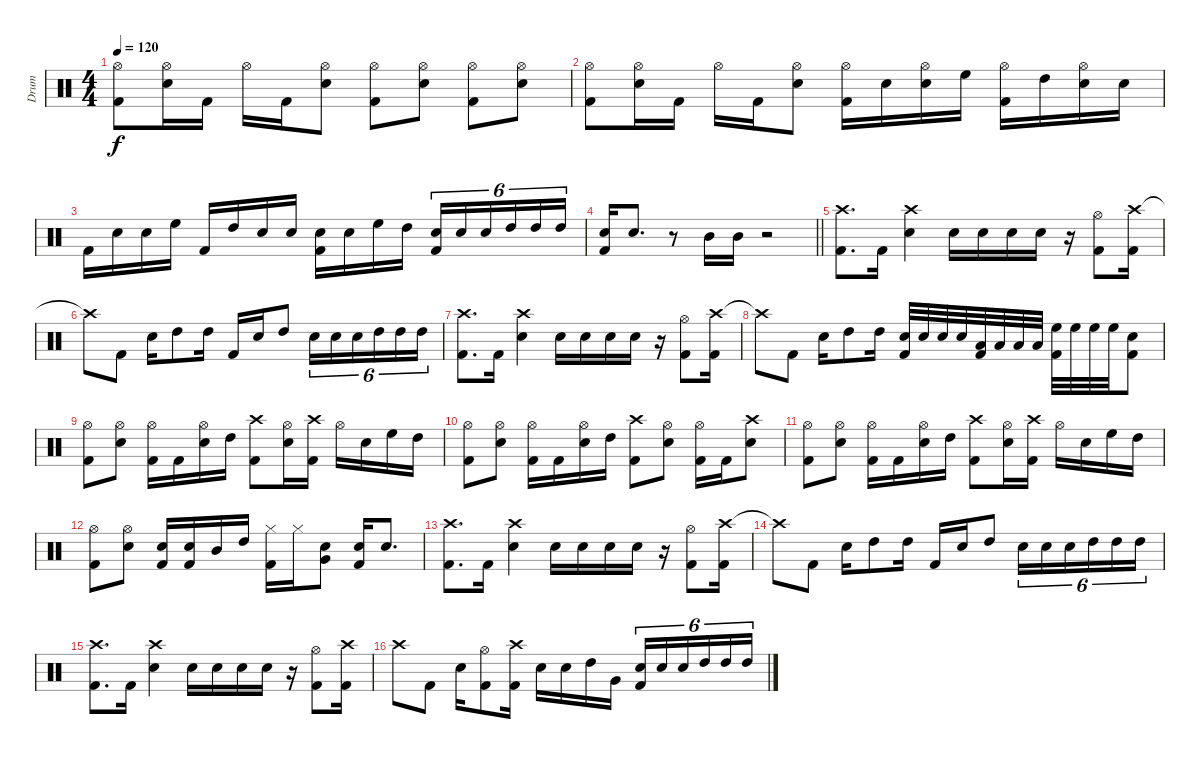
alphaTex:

\track ("Drum" "Drum") {instrument percussion}
\staff {score}
\articulation defaults
\ts (4 4)
\tempo 120
\clef neutral
\ks c
("Hi-Hat (open)" "Kick (hit) 2").8{dy f} ("Hi-Hat (open)" "Snare (hit) 2").16 "Kick (hit) 2".16 "Hi-Hat (open)".16 "Kick (hit) 2".16 ("Hi-Hat (open)" "Snare (hit) 2").8 ("Hi-Hat (open)" "Kick (hit) 2").8 ("Hi-Hat (open)" "Snare (hit) 2").8 ("Hi-Hat (open)" "Kick (hit) 2").8 ("Hi-Hat (open)" "Snare (hit) 2").8 |
("Hi-Hat (open)" "Kick (hit) 2").8 ("Hi-Hat (open)" "Snare (hit) 2").16 "Kick (hit) 2".16 "Hi-Hat (open)".16 "Kick (hit) 2".16 ("Hi-Hat (open)" "Snare (hit) 2").8 ("Hi-Hat (open)" "Kick (hit) 2").16 "Snare (hit) 2".16 ("Hi-Hat (open)" "Snare (hit) 2").16 "High Floor Tom (hit)".16 ("Hi-Hat (open)" "Kick (hit) 2").16 "High Tom (hit)".16 ("Hi-Hat (open)" "Snare (hit) 2").16 "Snare (hit) 2".16 |
"Kick (hit) 2".16 "Snare (hit) 2".16 "Snare (hit) 2".16 "High Floor Tom (hit)".16 "Kick (hit) 2".16 "High Tom (hit)".16 "Snare (hit) 2".16 "Snare (hit) 2".16 ("Snare (hit) 2" "Kick (hit) 2").16 "Snare (hit) 2".16 "High Floor Tom (hit)".16 "High Tom (hit)".16 ("Snare (hit) 2" "Kick (hit) 2").16{tu (6 4)} "Snare (hit) 2".16{tu (6 4)} "Snare (hit) 2".16{tu (6 4)} "High Tom (hit)".16{tu (6 4)} "High Tom (hit)".16{tu (6 4)} "High Tom (hit)".16{tu (6 4)} |
\barLineRight lightlight
("Snare (hit) 2" "Kick (hit) 2").16 "Snare (hit) 2".8{d} r.8 "Mid Tom (hit)".16 "Mid Tom (hit)".16 r.2 |
("Crash high (hit)" "Kick (hit) 2").8{d} "Kick (hit) 2".16 ("Crash high (hit)" "Snare (hit) 2").4 "Snare (hit) 2".16 "Snare (hit) 2".16 "Snare (hit) 2".16 "Snare (hit) 2".16 r.16 ("Hi-Hat (open)" "Kick (hit) 2").8 ("Crash high (hit)" "Kick (hit) 2").16 |
"Crash high (hit)"{t}.8 "Kick (hit) 2".8 "Snare (hit) 2".16 "High Tom (hit)".8 "High Tom (hit)".16 "Kick (hit) 2".16 "Snare (hit) 2".16 "High Tom (hit)".8 "Snare (hit) 2".16{tu (6 4)} "Snare (hit) 2".16{tu (6 4)} "Snare (hit) 2".16{tu (6 4)} "High Tom (hit)".16{tu (6 4)} "High Tom (hit)".16{tu (6 4)} "High Tom (hit)".16{tu (6 4)} |
("Crash high (hit)" "Kick (hit) 2").8{d} "Kick (hit) 2".16 ("Crash high (hit)" "Snare (hit) 2").4 "Snare (hit) 2".16 "Snare (hit) 2".16 "Snare (hit) 2".16 "Snare (hit) 2".16 r.16 ("Hi-Hat (open)" "Kick (hit) 2").8 ("Crash high (hit)" "Kick (hit) 2").16 |
"Crash high (hit)"{t}.8 "Kick (hit) 2".8 "Snare (hit) 2".16 "High Tom (hit)".8 "High Tom (hit)".16 ("Snare (hit) 2" "Kick (hit) 2").32 "Snare (hit) 2".32 "Snare (hit) 2".32 "Snare (hit) 2".32 ("Low Floor Tom (hit)" "Kick (hit) 2").32 "Low Floor Tom (hit)".32 "Low Floor Tom (hit)".32 "Low Floor Tom (hit)".32 ("High Floor Tom (hit)" "Kick (hit) 2").32 "High Floor Tom (hit)".32 "High Floor Tom (hit)".32 "High Floor Tom (hit)".32 ("Snare (hit) 2" "Kick (hit) 2").8 |
("Hi-Hat (open)" "Kick (hit) 2").8 ("Hi-Hat (open)" "Snare (hit) 2").8 ("Hi-Hat (open)" "Kick (hit) 2").16 "Kick (hit) 2".16 ("Hi-Hat (open)" "Snare (hit) 2").16 "High Tom (hit)".16 ("Crash high (hit)" "Kick (hit) 2").8 ("Hi-Hat (open)" "Snare (hit) 2").16 ("Crash high (hit)" "Kick (hit) 2").16 "Hi-Hat (open)".16 "Snare (hit) 2".16 "High Floor Tom (hit)".16 "High Tom (hit)".16 |
("Hi-Hat (open)" "Kick (hit) 2").8 ("Hi-Hat (open)" "Snare (hit) 2").8 ("Hi-Hat (open)" "Kick (hit) 2").16 "Kick (hit) 2".16 ("Hi-Hat (open)" "Snare (hit) 2").16 "High Tom (hit)".16 ("Crash high (hit)" "Kick (hit) 2").8 ("Hi-Hat (open)" "Snare (hit) 2").8 ("Hi-Hat (open)" "Kick (hit) 2").16 "Kick (hit) 2".16 ("Crash high (hit)" "Snare (hit) 2").8 |
("Hi-Hat (open)" "Kick (hit) 2").8 ("Hi-Hat (open)" "Snare (hit) 2").8 ("Hi-Hat (open)" "Kick (hit) 2").16 "Kick (hit) 2".16 ("Hi-Hat (open)" "Snare (hit) 2").16 "High Tom (hit)".16 ("Crash high (hit)" "Kick (hit) 2").8 ("Hi-Hat (open)" "Snare (hit) 2").16 ("Crash high (hit)" "Kick (hit) 2").16 "Hi-Hat (open)".16 "Snare (hit) 2".16 "High Floor Tom (hit)".16 "High Tom (hit)".16 |
("Hi-Hat (open)" "Kick (hit) 2").8 ("Hi-Hat (open)" "Snare (hit) 2").8 ("Snare (hit) 2" "Kick (hit) 2").16 ("Snare (hit) 2" "Kick (hit) 2").16 "Mid Tom (hit)".16 "High Tom (hit)".16 ("Hi-Hat (closed)" "Kick (hit) 2").16 "Hi-Hat (closed)".16 ("Snare (hit) 2" "Very Low Tom (hit)").8 ("Snare (hit) 2" "Kick (hit) 2").16 "Snare (hit) 2".8{d} |
("Crash high (hit)" "Kick (hit) 2").8{d} "Kick (hit) 2".16 ("Crash high (hit)" "Snare (hit) 2").4 "Snare (hit) 2".16 "Snare (hit) 2".16 "Snare (hit) 2".16 "Snare (hit) 2".16 r.16 ("Hi-Hat (open)" "Kick (hit) 2").8 ("Crash high (hit)" "Kick (hit) 2").16 |
"Crash high (hit)"{t}.8 "Kick (hit) 2".8 "Snare (hit) 2".16 "High Tom (hit)".8 "High Tom (hit)".16 "Kick (hit) 2".16 "Snare (hit) 2".16 "High Tom (hit)".8 "Snare (hit) 2".16{tu (6 4)} "Snare (hit) 2".16{tu (6 4)} "Snare (hit) 2".16{tu (6 4)} "High Tom (hit)".16{tu (6 4)} "High Tom (hit)".16{tu (6 4)} "High Tom (hit)".16{tu (6 4)} |
("Crash high (hit)" "Kick (hit) 2").8{d} "Kick (hit) 2".16 ("Crash high (hit)" "Snare (hit) 2").4 "Snare (hit) 2".16 "Snare (hit) 2".16 "Snare (hit) 2".16 "Snare (hit) 2".16 r.16 ("Hi-Hat (open)" "Kick (hit) 2").8 ("Crash high (hit)" "Kick (hit) 2").16 |
"Crash high (hit)".8 "Kick (hit) 2".8 "Snare (hit) 2".16 ("Hi-Hat (open)" "Kick (hit) 2").8 ("Crash high (hit)" "Kick (hit) 2").16 "Snare (hit) 2".16 "Snare (hit) 2".16 "High Tom (hit)".16 "Very Low Tom (hit)".16 ("Snare (hit) 2" "Kick (hit) 2").16{tu (6 4)} "Snare (hit) 2".16{tu (6 4)} "Snare (hit) 2".16{tu (6 4)} "High Tom (hit)".16{tu (6 4)} "High Tom (hit)".16{tu (6 4)} "High Tom (hit)".16{tu (6 4)}
